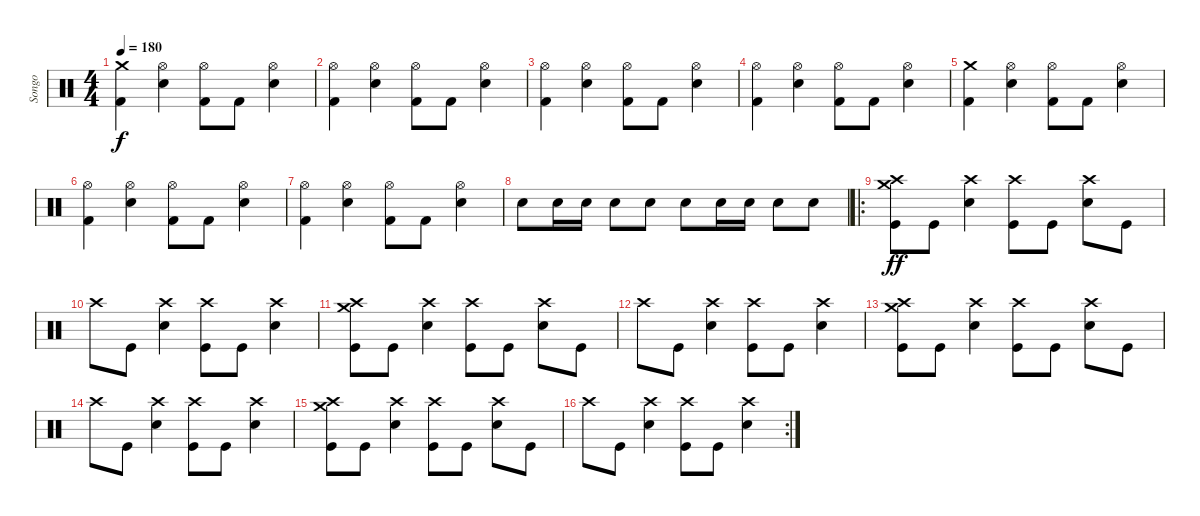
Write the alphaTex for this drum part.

\track ("Songo" "Songo") {instrument percussion}
\staff {score}
\articulation defaults
\ts (4 4)
\tempo 180
\clef neutral
\ks c
("Kick (hit) 2" "Crash medium (hit)").4{dy f} ("Electric Snare (hit)" "Hi-Hat (open)").4 ("Kick (hit) 2" "Hi-Hat (open)").8 "Kick (hit) 2".8 ("Electric Snare (hit)" "Hi-Hat (open)").4 |
("Kick (hit) 2" "Hi-Hat (open)").4 ("Electric Snare (hit)" "Hi-Hat (open)").4 ("Kick (hit) 2" "Hi-Hat (open)").8 "Kick (hit) 2".8 ("Electric Snare (hit)" "Hi-Hat (open)").4 |
("Kick (hit) 2" "Hi-Hat (open)").4 ("Electric Snare (hit)" "Hi-Hat (open)").4 ("Kick (hit) 2" "Hi-Hat (open)").8 "Kick (hit) 2".8 ("Electric Snare (hit)" "Hi-Hat (open)").4 |
("Kick (hit) 2" "Hi-Hat (open)").4 ("Electric Snare (hit)" "Hi-Hat (open)").4 ("Kick (hit) 2" "Hi-Hat (open)").8 "Kick (hit) 2".8 ("Electric Snare (hit)" "Hi-Hat (open)").4 |
("Kick (hit) 2" "Crash medium (hit)").4 ("Electric Snare (hit)" "Hi-Hat (open)").4 ("Kick (hit) 2" "Hi-Hat (open)").8 "Kick (hit) 2".8 ("Electric Snare (hit)" "Hi-Hat (open)").4 |
("Kick (hit) 2" "Hi-Hat (open)").4 ("Electric Snare (hit)" "Hi-Hat (open)").4 ("Kick (hit) 2" "Hi-Hat (open)").8 "Kick (hit) 2".8 ("Electric Snare (hit)" "Hi-Hat (open)").4 |
("Kick (hit) 2" "Hi-Hat (open)").4 ("Electric Snare (hit)" "Hi-Hat (open)").4 ("Kick (hit) 2" "Hi-Hat (open)").8 "Kick (hit) 2".8 ("Electric Snare (hit)" "Hi-Hat (open)").4 |
"Snare (hit) 2".8 "Snare (hit) 2".16 "Snare (hit) 2".16 "Snare (hit) 2".8 "Snare (hit) 2".8 "Snare (hit) 2".8 "Snare (hit) 2".16 "Snare (hit) 2".16 "Snare (hit) 2".8 "Snare (hit) 2".8 |
\ro
("Crash high (hit)" "Crash medium (hit)" "Kick (hit)").8{dy ff} "Kick (hit)".8 ("Crash high (hit)" "Snare (hit) 2").4 ("Crash high (hit)" "Kick (hit)").8 "Kick (hit)".8 ("Crash high (hit)" "Snare (hit) 2").8 "Kick (hit)".8 |
"Crash high (hit)".8 "Kick (hit)".8 ("Crash high (hit)" "Snare (hit) 2").4 ("Crash high (hit)" "Kick (hit)").8 "Kick (hit)".8 ("Crash high (hit)" "Snare (hit) 2").4 |
("Crash high (hit)" "Crash medium (hit)" "Kick (hit)").8 "Kick (hit)".8 ("Crash high (hit)" "Snare (hit) 2").4 ("Crash high (hit)" "Kick (hit)").8 "Kick (hit)".8 ("Crash high (hit)" "Snare (hit) 2").8 "Kick (hit)".8 |
"Crash high (hit)".8 "Kick (hit)".8 ("Crash high (hit)" "Snare (hit) 2").4 ("Crash high (hit)" "Kick (hit)").8 "Kick (hit)".8 ("Crash high (hit)" "Snare (hit) 2").4 |
("Crash high (hit)" "Crash medium (hit)" "Kick (hit)").8 "Kick (hit)".8 ("Crash high (hit)" "Snare (hit) 2").4 ("Crash high (hit)" "Kick (hit)").8 "Kick (hit)".8 ("Crash high (hit)" "Snare (hit) 2").8 "Kick (hit)".8 |
"Crash high (hit)".8 "Kick (hit)".8 ("Crash high (hit)" "Snare (hit) 2").4 ("Crash high (hit)" "Kick (hit)").8 "Kick (hit)".8 ("Crash high (hit)" "Snare (hit) 2").4 |
("Crash high (hit)" "Crash medium (hit)" "Kick (hit)").8 "Kick (hit)".8 ("Crash high (hit)" "Snare (hit) 2").4 ("Crash high (hit)" "Kick (hit)").8 "Kick (hit)".8 ("Crash high (hit)" "Snare (hit) 2").8 "Kick (hit)".8 |
\rc 2 "Crash high (hit)".8 "Kick (hit)".8
("Crash high (hit)" "Snare (hit) 2").4 ("Crash high (hit)" "Kick (hit)").8 "Kick (hit)".8 ("Crash high (hit)" "Snare (hit) 2").4
